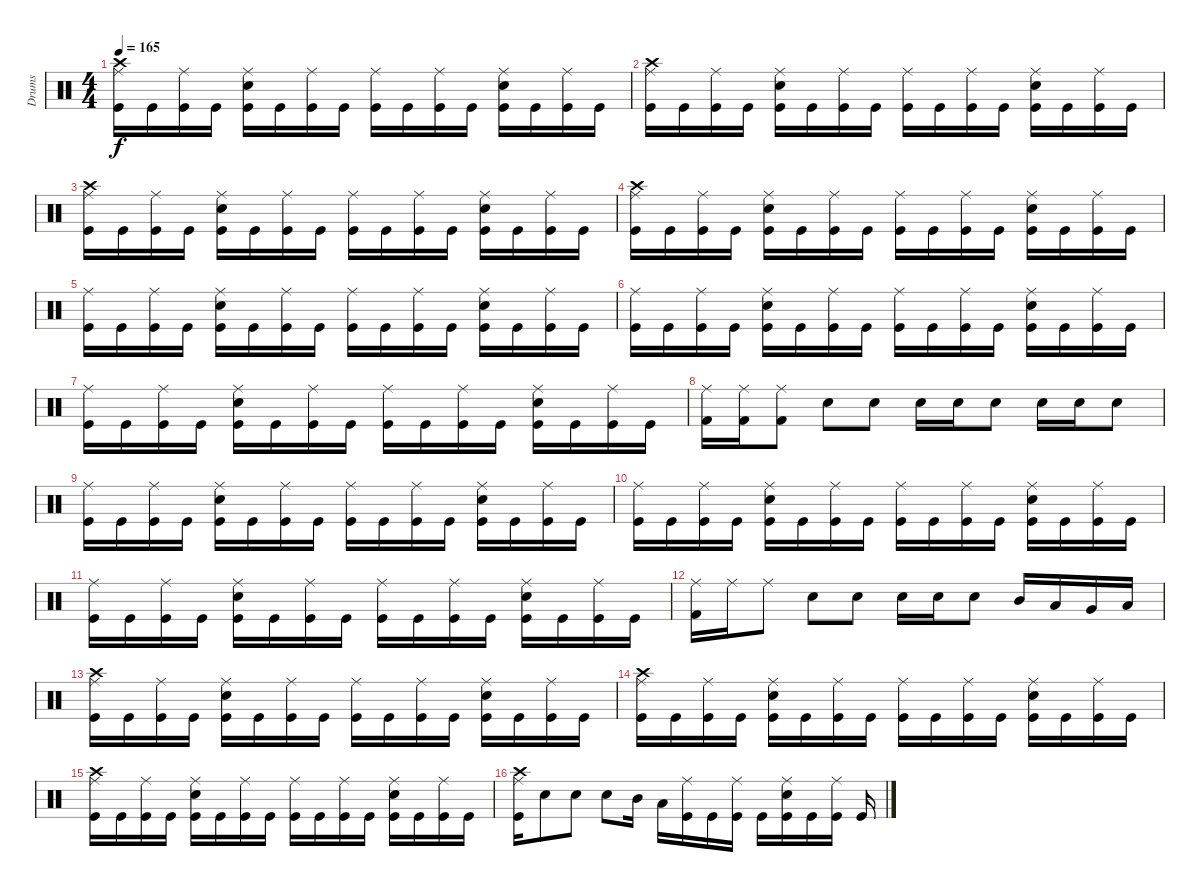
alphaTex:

\track ("Drums" "Drums") {instrument percussion}
\staff {score}
\articulation defaults
\ts (4 4)
\tempo 165
\clef neutral
\ks c
("Kick (hit)" "Ride (middle)" "Crash high (hit)").16{dy f} "Kick (hit)".16 ("Kick (hit)" "Ride (middle)").16 "Kick (hit)".16 ("Kick (hit)" "Snare (hit) 2" "Ride (middle)").16 "Kick (hit)".16 ("Kick (hit)" "Ride (middle)").16 "Kick (hit)".16 ("Kick (hit)" "Ride (middle)").16 "Kick (hit)".16 ("Kick (hit)" "Ride (middle)").16 "Kick (hit)".16 ("Kick (hit)" "Snare (hit) 2" "Ride (middle)").16 "Kick (hit)".16 ("Kick (hit)" "Ride (middle)").16 "Kick (hit)".16 |
("Kick (hit)" "Ride (middle)" "Crash high (hit)").16 "Kick (hit)".16 ("Kick (hit)" "Ride (middle)").16 "Kick (hit)".16 ("Kick (hit)" "Snare (hit) 2" "Ride (middle)").16 "Kick (hit)".16 ("Kick (hit)" "Ride (middle)").16 "Kick (hit)".16 ("Kick (hit)" "Ride (middle)").16 "Kick (hit)".16 ("Kick (hit)" "Ride (middle)").16 "Kick (hit)".16 ("Kick (hit)" "Snare (hit) 2" "Ride (middle)").16 "Kick (hit)".16 ("Kick (hit)" "Ride (middle)").16 "Kick (hit)".16 |
("Kick (hit)" "Ride (middle)" "Crash high (hit)").16 "Kick (hit)".16 ("Kick (hit)" "Ride (middle)").16 "Kick (hit)".16 ("Kick (hit)" "Snare (hit) 2" "Ride (middle)").16 "Kick (hit)".16 ("Kick (hit)" "Ride (middle)").16 "Kick (hit)".16 ("Kick (hit)" "Ride (middle)").16 "Kick (hit)".16 ("Kick (hit)" "Ride (middle)").16 "Kick (hit)".16 ("Kick (hit)" "Snare (hit) 2" "Ride (middle)").16 "Kick (hit)".16 ("Kick (hit)" "Ride (middle)").16 "Kick (hit)".16 |
("Kick (hit)" "Ride (middle)" "Crash high (hit)").16 "Kick (hit)".16 ("Kick (hit)" "Ride (middle)").16 "Kick (hit)".16 ("Kick (hit)" "Snare (hit) 2" "Ride (middle)").16 "Kick (hit)".16 ("Kick (hit)" "Ride (middle)").16 "Kick (hit)".16 ("Kick (hit)" "Ride (middle)").16 "Kick (hit)".16 ("Kick (hit)" "Ride (middle)").16 "Kick (hit)".16 ("Kick (hit)" "Snare (hit) 2" "Ride (middle)").16 "Kick (hit)".16 ("Kick (hit)" "Ride (middle)").16 "Kick (hit)".16 |
("Kick (hit)" "Ride (middle)").16 "Kick (hit)".16 ("Kick (hit)" "Ride (middle)").16 "Kick (hit)".16 ("Kick (hit)" "Snare (hit) 2" "Ride (middle)").16 "Kick (hit)".16 ("Kick (hit)" "Ride (middle)").16 "Kick (hit)".16 ("Kick (hit)" "Ride (middle)").16 "Kick (hit)".16 ("Kick (hit)" "Ride (middle)").16 "Kick (hit)".16 ("Kick (hit)" "Snare (hit) 2" "Ride (middle)").16 "Kick (hit)".16 ("Kick (hit)" "Ride (middle)").16 "Kick (hit)".16 |
("Kick (hit)" "Ride (middle)").16 "Kick (hit)".16 ("Kick (hit)" "Ride (middle)").16 "Kick (hit)".16 ("Kick (hit)" "Snare (hit) 2" "Ride (middle)").16 "Kick (hit)".16 ("Kick (hit)" "Ride (middle)").16 "Kick (hit)".16 ("Kick (hit)" "Ride (middle)").16 "Kick (hit)".16 ("Kick (hit)" "Ride (middle)").16 "Kick (hit)".16 ("Kick (hit)" "Snare (hit) 2" "Ride (middle)").16 "Kick (hit)".16 ("Kick (hit)" "Ride (middle)").16 "Kick (hit)".16 |
("Kick (hit)" "Ride (middle)").16 "Kick (hit)".16 ("Kick (hit)" "Ride (middle)").16 "Kick (hit)".16 ("Kick (hit)" "Snare (hit) 2" "Ride (middle)").16 "Kick (hit)".16 ("Kick (hit)" "Ride (middle)").16 "Kick (hit)".16 ("Kick (hit)" "Ride (middle)").16 "Kick (hit)".16 ("Kick (hit)" "Ride (middle)").16 "Kick (hit)".16 ("Kick (hit)" "Snare (hit) 2" "Ride (middle)").16 "Kick (hit)".16 ("Kick (hit)" "Ride (middle)").16 "Kick (hit)".16 |
("Kick (hit) 2" "Ride (middle)").16 ("Kick (hit) 2" "Ride (middle)").16 ("Kick (hit) 2" "Ride (middle)").8 "Snare (hit) 2".8 "Snare (hit) 2".8 "Snare (hit) 2".16 "Snare (hit) 2".16 "Snare (hit) 2".8 "Snare (hit) 2".16 "Snare (hit) 2".16 "Snare (hit) 2".8 |
("Kick (hit)" "Ride (middle)").16 "Kick (hit)".16 ("Kick (hit)" "Ride (middle)").16 "Kick (hit)".16 ("Kick (hit)" "Snare (hit) 2" "Ride (middle)").16 "Kick (hit)".16 ("Kick (hit)" "Ride (middle)").16 "Kick (hit)".16 ("Kick (hit)" "Ride (middle)").16 "Kick (hit)".16 ("Kick (hit)" "Ride (middle)").16 "Kick (hit)".16 ("Kick (hit)" "Snare (hit) 2" "Ride (middle)").16 "Kick (hit)".16 ("Kick (hit)" "Ride (middle)").16 "Kick (hit)".16 |
("Kick (hit)" "Ride (middle)").16 "Kick (hit)".16 ("Kick (hit)" "Ride (middle)").16 "Kick (hit)".16 ("Kick (hit)" "Snare (hit) 2" "Ride (middle)").16 "Kick (hit)".16 ("Kick (hit)" "Ride (middle)").16 "Kick (hit)".16 ("Kick (hit)" "Ride (middle)").16 "Kick (hit)".16 ("Kick (hit)" "Ride (middle)").16 "Kick (hit)".16 ("Kick (hit)" "Snare (hit) 2" "Ride (middle)").16 "Kick (hit)".16 ("Kick (hit)" "Ride (middle)").16 "Kick (hit)".16 |
("Kick (hit)" "Ride (middle)").16 "Kick (hit)".16 ("Kick (hit)" "Ride (middle)").16 "Kick (hit)".16 ("Kick (hit)" "Snare (hit) 2" "Ride (middle)").16 "Kick (hit)".16 ("Kick (hit)" "Ride (middle)").16 "Kick (hit)".16 ("Kick (hit)" "Ride (middle)").16 "Kick (hit)".16 ("Kick (hit)" "Ride (middle)").16 "Kick (hit)".16 ("Kick (hit)" "Snare (hit) 2" "Ride (middle)").16 "Kick (hit)".16 ("Kick (hit)" "Ride (middle)").16 "Kick (hit)".16 |
("Kick (hit) 2" "Ride (middle)").16 "Ride (middle)".16 "Ride (middle)".8 "Snare (hit) 2".8 "Snare (hit) 2".8 "Snare (hit) 2".16 "Snare (hit) 2".16 "Snare (hit) 2".8 "Mid Tom (hit)".16 "Low Tom (hit)".16 "Very Low Tom (hit)".16 "Low Floor Tom (hit)".16 |
("Kick (hit)" "Ride (middle)" "Crash high (hit)").16 "Kick (hit)".16 ("Kick (hit)" "Ride (middle)").16 "Kick (hit)".16 ("Kick (hit)" "Snare (hit) 2" "Ride (middle)").16 "Kick (hit)".16 ("Kick (hit)" "Ride (middle)").16 "Kick (hit)".16 ("Kick (hit)" "Ride (middle)").16 "Kick (hit)".16 ("Kick (hit)" "Ride (middle)").16 "Kick (hit)".16 ("Kick (hit)" "Snare (hit) 2" "Ride (middle)").16 "Kick (hit)".16 ("Kick (hit)" "Ride (middle)").16 "Kick (hit)".16 |
("Kick (hit)" "Ride (middle)" "Crash high (hit)").16 "Kick (hit)".16 ("Kick (hit)" "Ride (middle)").16 "Kick (hit)".16 ("Kick (hit)" "Snare (hit) 2" "Ride (middle)").16 "Kick (hit)".16 ("Kick (hit)" "Ride (middle)").16 "Kick (hit)".16 ("Kick (hit)" "Ride (middle)").16 "Kick (hit)".16 ("Kick (hit)" "Ride (middle)").16 "Kick (hit)".16 ("Kick (hit)" "Snare (hit) 2" "Ride (middle)").16 "Kick (hit)".16 ("Kick (hit)" "Ride (middle)").16 "Kick (hit)".16 |
("Kick (hit)" "Ride (middle)" "Crash high (hit)").16 "Kick (hit)".16 ("Kick (hit)" "Ride (middle)").16 "Kick (hit)".16 ("Kick (hit)" "Snare (hit) 2" "Ride (middle)").16 "Kick (hit)".16 ("Kick (hit)" "Ride (middle)").16 "Kick (hit)".16 ("Kick (hit)" "Ride (middle)").16 "Kick (hit)".16 ("Kick (hit)" "Ride (middle)").16 "Kick (hit)".16 ("Kick (hit)" "Snare (hit) 2" "Ride (middle)").16 "Kick (hit)".16 ("Kick (hit)" "Ride (middle)").16 "Kick (hit)".16 |
("Kick (hit)" "Ride (middle)" "Crash high (hit)").16 "Snare (hit) 2".8 "Snare (hit) 2".8 "Snare (hit) 2".8 "Mid Tom (hit)".16 "Low Floor Tom (hit)".16 ("Kick (hit)" "Ride (middle)").16 "Kick (hit)".16 ("Kick (hit)" "Ride (middle)").16 "Kick (hit)".16 ("Kick (hit)" "Snare (hit) 2" "Ride (middle)").16 "Kick (hit)".16 ("Kick (hit)" "Ride (middle)").16 "Kick (hit)".16
